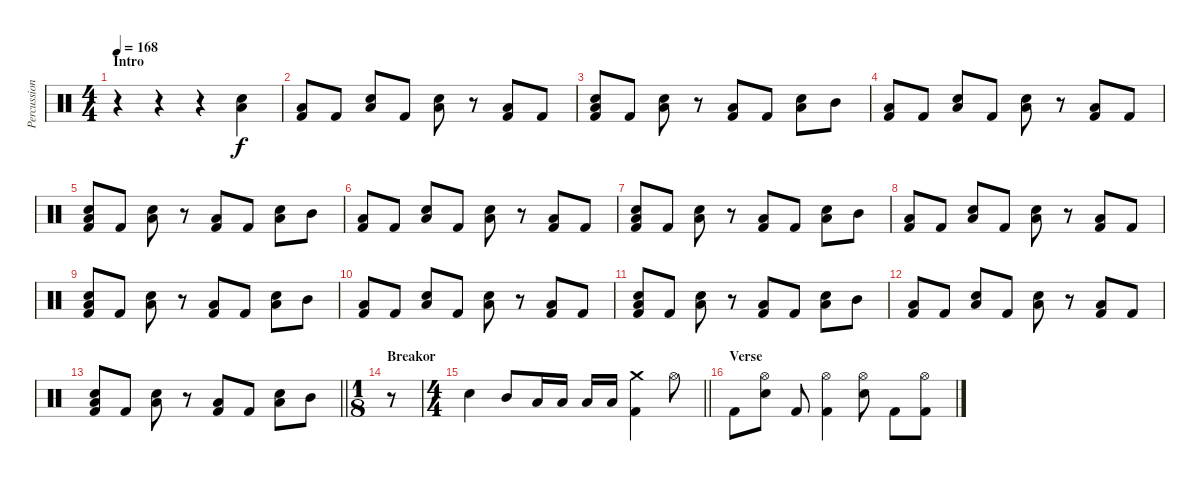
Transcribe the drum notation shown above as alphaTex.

\track ("Percussion" "Percussion") {instrument percussion}
\staff {score}
\articulation defaults
\ts (4 4)
\section ("" "Intro")
\tempo 168
\clef neutral
\ks c
r.4{dy f} r.4 r.4 ("Low Tom (hit)" "Snare (hit) 2").4 |
("Low Tom (hit)" "Kick (hit) 2").8 "Kick (hit) 2".8 ("Low Tom (hit)" "Snare (hit) 2").8 "Kick (hit) 2".8 ("Low Tom (hit)" "Snare (hit) 2").8 r.8 ("Low Tom (hit)" "Kick (hit) 2").8 "Kick (hit) 2".8 |
("Low Tom (hit)" "Snare (hit) 2" "Kick (hit) 2").8 "Kick (hit) 2".8 ("Low Tom (hit)" "Snare (hit) 2").8 r.8 ("Low Tom (hit)" "Kick (hit) 2").8 "Kick (hit) 2".8 ("Low Tom (hit)" "Snare (hit) 2").8 "Mid Tom (hit)".8 |
("Low Tom (hit)" "Kick (hit) 2").8 "Kick (hit) 2".8 ("Low Tom (hit)" "Snare (hit) 2").8 "Kick (hit) 2".8 ("Low Tom (hit)" "Snare (hit) 2").8 r.8 ("Low Tom (hit)" "Kick (hit) 2").8 "Kick (hit) 2".8 |
("Low Tom (hit)" "Snare (hit) 2" "Kick (hit) 2").8 "Kick (hit) 2".8 ("Low Tom (hit)" "Snare (hit) 2").8 r.8 ("Low Tom (hit)" "Kick (hit) 2").8 "Kick (hit) 2".8 ("Low Tom (hit)" "Snare (hit) 2").8 "Mid Tom (hit)".8 |
("Low Tom (hit)" "Kick (hit) 2").8 "Kick (hit) 2".8 ("Low Tom (hit)" "Snare (hit) 2").8 "Kick (hit) 2".8 ("Low Tom (hit)" "Snare (hit) 2").8 r.8 ("Low Tom (hit)" "Kick (hit) 2").8 "Kick (hit) 2".8 |
("Low Tom (hit)" "Snare (hit) 2" "Kick (hit) 2").8 "Kick (hit) 2".8 ("Low Tom (hit)" "Snare (hit) 2").8 r.8 ("Low Tom (hit)" "Kick (hit) 2").8 "Kick (hit) 2".8 ("Low Tom (hit)" "Snare (hit) 2").8 "Mid Tom (hit)".8 |
("Low Tom (hit)" "Kick (hit) 2").8 "Kick (hit) 2".8 ("Low Tom (hit)" "Snare (hit) 2").8 "Kick (hit) 2".8 ("Low Tom (hit)" "Snare (hit) 2").8 r.8 ("Low Tom (hit)" "Kick (hit) 2").8 "Kick (hit) 2".8 |
("Low Tom (hit)" "Snare (hit) 2" "Kick (hit) 2").8 "Kick (hit) 2".8 ("Low Tom (hit)" "Snare (hit) 2").8 r.8 ("Low Tom (hit)" "Kick (hit) 2").8 "Kick (hit) 2".8 ("Low Tom (hit)" "Snare (hit) 2").8 "Mid Tom (hit)".8 |
("Low Tom (hit)" "Kick (hit) 2").8 "Kick (hit) 2".8 ("Low Tom (hit)" "Snare (hit) 2").8 "Kick (hit) 2".8 ("Low Tom (hit)" "Snare (hit) 2").8 r.8 ("Low Tom (hit)" "Kick (hit) 2").8 "Kick (hit) 2".8 |
("Low Tom (hit)" "Snare (hit) 2" "Kick (hit) 2").8 "Kick (hit) 2".8 ("Low Tom (hit)" "Snare (hit) 2").8 r.8 ("Low Tom (hit)" "Kick (hit) 2").8 "Kick (hit) 2".8 ("Low Tom (hit)" "Snare (hit) 2").8 "Mid Tom (hit)".8 |
("Low Tom (hit)" "Kick (hit) 2").8 "Kick (hit) 2".8 ("Low Tom (hit)" "Snare (hit) 2").8 "Kick (hit) 2".8 ("Low Tom (hit)" "Snare (hit) 2").8 r.8 ("Low Tom (hit)" "Kick (hit) 2").8 "Kick (hit) 2".8 |
\barLineRight lightlight
("Low Tom (hit)" "Snare (hit) 2" "Kick (hit) 2").8 "Kick (hit) 2".8 ("Low Tom (hit)" "Snare (hit) 2").8 r.8 ("Low Tom (hit)" "Kick (hit) 2").8 "Kick (hit) 2".8 ("Low Tom (hit)" "Snare (hit) 2").8 "Mid Tom (hit)".8 |
\ts (1 8)
\section ("" "Breakor")
r.8 |
\ts (4 4)
\barLineRight lightlight "Snare (hit) 2".4 "Mid Tom (hit)".8 "Low Tom (hit)".16 "Low Tom (hit)".16 "Low Tom (hit)".16 "Low Tom (hit)".16
("Crash medium (hit)" "Kick (hit) 2").4 "Hi-Hat (open)".8 |
\section ("" "Verse")
"Kick (hit) 2".8 ("Hi-Hat (open)" "Snare (hit) 2").8 "Kick (hit) 2".8 ("Hi-Hat (open)" "Kick (hit) 2").4 ("Hi-Hat (open)" "Snare (hit) 2").8 "Kick (hit) 2".8 ("Hi-Hat (open)" "Kick (hit) 2").8
